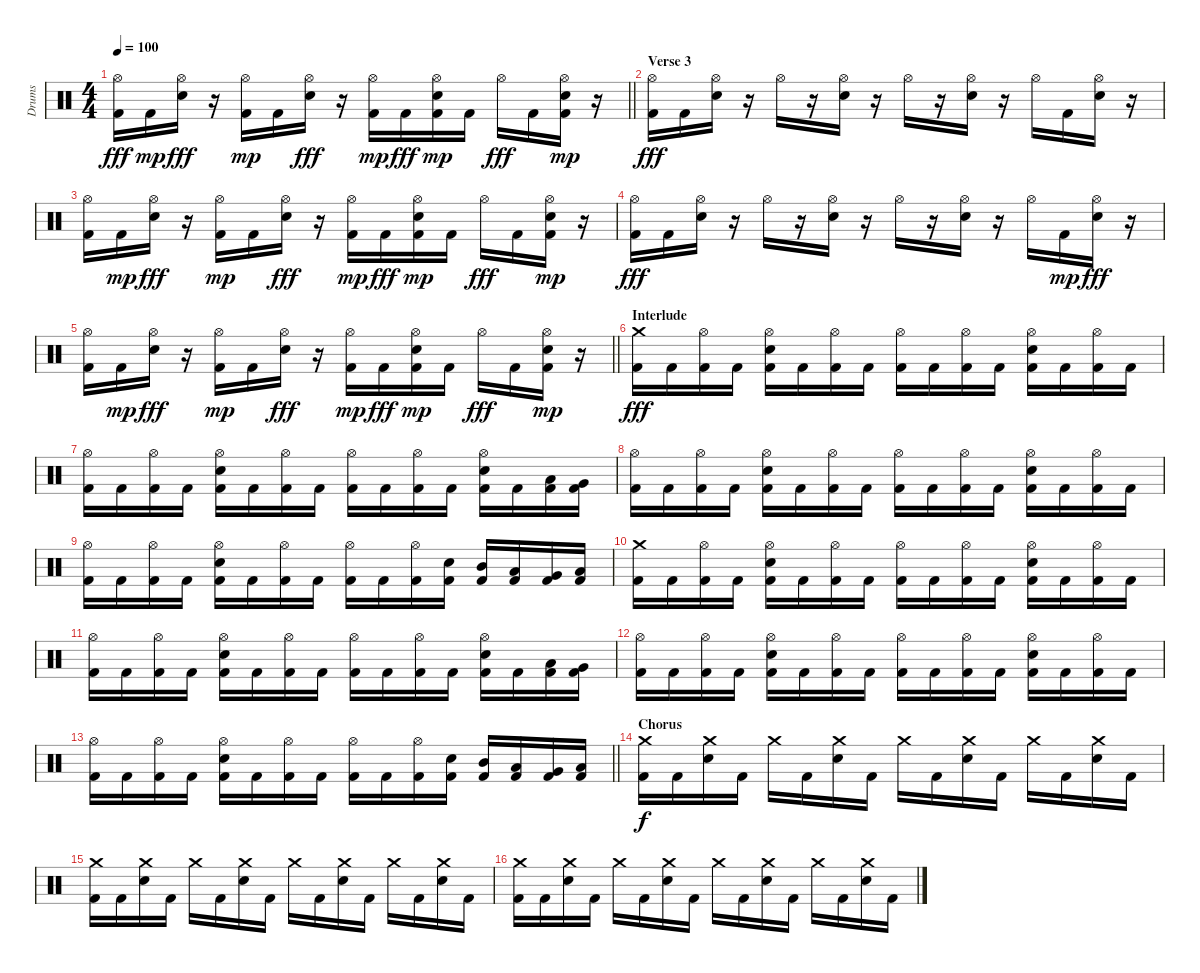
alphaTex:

\track ("Drums" "Drums") {instrument percussion}
\staff {score}
\articulation defaults
\ts (4 4)
\tempo 100
\clef neutral
\barLineRight lightlight
\ks c
("Hi-Hat (open)" "Kick (hit) 2").16{dy fff} "Kick (hit) 2".16{dy mp} ("Hi-Hat (open)" "Electric Snare (hit)").16{dy fff} r.16 ("Hi-Hat (open)" "Kick (hit) 2").16{dy mp} "Kick (hit) 2".16 ("Hi-Hat (open)" "Electric Snare (hit)").16{dy fff} r.16 ("Hi-Hat (open)" "Kick (hit) 2").16{dy mp} "Kick (hit) 2".16{dy fff} ("Hi-Hat (open)" "Electric Snare (hit)" "Kick (hit) 2").16{dy mp} "Kick (hit) 2".16 "Hi-Hat (open)".16{dy fff} "Kick (hit) 2".16 ("Hi-Hat (open)" "Electric Snare (hit)" "Kick (hit) 2").16{dy mp} r.16 |
\section ("" "Verse 3")
("Hi-Hat (open)" "Kick (hit) 2").16{dy fff} "Kick (hit) 2".16 ("Hi-Hat (open)" "Electric Snare (hit)").16 r.16 "Hi-Hat (open)".16 r.16 ("Hi-Hat (open)" "Electric Snare (hit)").16 r.16 "Hi-Hat (open)".16 r.16 ("Hi-Hat (open)" "Electric Snare (hit)").16 r.16 "Hi-Hat (open)".16 "Kick (hit) 2".16 ("Hi-Hat (open)" "Electric Snare (hit)").16 r.16 |
("Hi-Hat (open)" "Kick (hit) 2").16 "Kick (hit) 2".16{dy mp} ("Hi-Hat (open)" "Electric Snare (hit)").16{dy fff} r.16 ("Hi-Hat (open)" "Kick (hit) 2").16{dy mp} "Kick (hit) 2".16 ("Hi-Hat (open)" "Electric Snare (hit)").16{dy fff} r.16 ("Hi-Hat (open)" "Kick (hit) 2").16{dy mp} "Kick (hit) 2".16{dy fff} ("Hi-Hat (open)" "Electric Snare (hit)" "Kick (hit) 2").16{dy mp} "Kick (hit) 2".16 "Hi-Hat (open)".16{dy fff} "Kick (hit) 2".16 ("Hi-Hat (open)" "Electric Snare (hit)" "Kick (hit) 2").16{dy mp} r.16 |
("Hi-Hat (open)" "Kick (hit) 2").16{dy fff} "Kick (hit) 2".16 ("Hi-Hat (open)" "Electric Snare (hit)").16 r.16 "Hi-Hat (open)".16 r.16 ("Hi-Hat (open)" "Electric Snare (hit)").16 r.16 "Hi-Hat (open)".16 r.16 ("Hi-Hat (open)" "Electric Snare (hit)").16 r.16 "Hi-Hat (open)".16 "Kick (hit) 2".16{dy mp} ("Hi-Hat (open)" "Electric Snare (hit)").16{dy fff} r.16 |
\barLineRight lightlight
("Hi-Hat (open)" "Kick (hit) 2").16 "Kick (hit) 2".16{dy mp} ("Hi-Hat (open)" "Electric Snare (hit)").16{dy fff} r.16 ("Hi-Hat (open)" "Kick (hit) 2").16{dy mp} "Kick (hit) 2".16 ("Hi-Hat (open)" "Electric Snare (hit)").16{dy fff} r.16 ("Hi-Hat (open)" "Kick (hit) 2").16{dy mp} "Kick (hit) 2".16{dy fff} ("Hi-Hat (open)" "Electric Snare (hit)" "Kick (hit) 2").16{dy mp} "Kick (hit) 2".16 "Hi-Hat (open)".16{dy fff} "Kick (hit) 2".16 ("Hi-Hat (open)" "Electric Snare (hit)" "Kick (hit) 2").16{dy mp} r.16 |
\section ("" "Interlude")
("Crash medium (hit)" "Kick (hit) 2").16{dy fff} "Kick (hit) 2".16 ("Hi-Hat (open)" "Kick (hit) 2").16 "Kick (hit) 2".16 ("Hi-Hat (open)" "Electric Snare (hit)" "Kick (hit) 2").16 "Kick (hit) 2".16 ("Hi-Hat (open)" "Kick (hit) 2").16 "Kick (hit) 2".16 ("Hi-Hat (open)" "Kick (hit) 2").16 "Kick (hit) 2".16 ("Hi-Hat (open)" "Kick (hit) 2").16 "Kick (hit) 2".16 ("Hi-Hat (open)" "Electric Snare (hit)" "Kick (hit) 2").16 "Kick (hit) 2".16 ("Hi-Hat (open)" "Kick (hit) 2").16 "Kick (hit) 2".16 |
("Hi-Hat (open)" "Kick (hit) 2").16 "Kick (hit) 2".16 ("Hi-Hat (open)" "Kick (hit) 2").16 "Kick (hit) 2".16 ("Hi-Hat (open)" "Electric Snare (hit)" "Kick (hit) 2").16 "Kick (hit) 2".16 ("Hi-Hat (open)" "Kick (hit) 2").16 "Kick (hit) 2".16 ("Hi-Hat (open)" "Kick (hit) 2").16 "Kick (hit) 2".16 ("Hi-Hat (open)" "Kick (hit) 2").16 "Kick (hit) 2".16 ("Hi-Hat (open)" "Electric Snare (hit)" "Kick (hit) 2").16 "Kick (hit) 2".16 ("Low Tom (hit)" "Kick (hit) 2").16 ("Very Low Tom (hit)" "Kick (hit) 2").16 |
("Hi-Hat (open)" "Kick (hit) 2").16 "Kick (hit) 2".16 ("Hi-Hat (open)" "Kick (hit) 2").16 "Kick (hit) 2".16 ("Hi-Hat (open)" "Electric Snare (hit)" "Kick (hit) 2").16 "Kick (hit) 2".16 ("Hi-Hat (open)" "Kick (hit) 2").16 "Kick (hit) 2".16 ("Hi-Hat (open)" "Kick (hit) 2").16 "Kick (hit) 2".16 ("Hi-Hat (open)" "Kick (hit) 2").16 "Kick (hit) 2".16 ("Hi-Hat (open)" "Electric Snare (hit)" "Kick (hit) 2").16 "Kick (hit) 2".16 ("Hi-Hat (open)" "Kick (hit) 2").16 "Kick (hit) 2".16 |
("Hi-Hat (open)" "Kick (hit) 2").16 "Kick (hit) 2".16 ("Hi-Hat (open)" "Kick (hit) 2").16 "Kick (hit) 2".16 ("Hi-Hat (open)" "Electric Snare (hit)" "Kick (hit) 2").16 "Kick (hit) 2".16 ("Hi-Hat (open)" "Kick (hit) 2").16 "Kick (hit) 2".16 ("Hi-Hat (open)" "Kick (hit) 2").16 "Kick (hit) 2".16 ("Hi-Hat (open)" "Kick (hit) 2").16 ("Electric Snare (hit)" "Kick (hit) 2").16 ("Mid Tom (hit)" "Kick (hit) 2").16 ("Low Tom (hit)" "Kick (hit) 2").16 ("Very Low Tom (hit)" "Kick (hit) 2").16 ("Low Floor Tom (hit)" "Kick (hit) 2").16 |
("Crash medium (hit)" "Kick (hit) 2").16 "Kick (hit) 2".16 ("Hi-Hat (open)" "Kick (hit) 2").16 "Kick (hit) 2".16 ("Hi-Hat (open)" "Electric Snare (hit)" "Kick (hit) 2").16 "Kick (hit) 2".16 ("Hi-Hat (open)" "Kick (hit) 2").16 "Kick (hit) 2".16 ("Hi-Hat (open)" "Kick (hit) 2").16 "Kick (hit) 2".16 ("Hi-Hat (open)" "Kick (hit) 2").16 "Kick (hit) 2".16 ("Hi-Hat (open)" "Electric Snare (hit)" "Kick (hit) 2").16 "Kick (hit) 2".16 ("Hi-Hat (open)" "Kick (hit) 2").16 "Kick (hit) 2".16 |
("Hi-Hat (open)" "Kick (hit) 2").16 "Kick (hit) 2".16 ("Hi-Hat (open)" "Kick (hit) 2").16 "Kick (hit) 2".16 ("Hi-Hat (open)" "Electric Snare (hit)" "Kick (hit) 2").16 "Kick (hit) 2".16 ("Hi-Hat (open)" "Kick (hit) 2").16 "Kick (hit) 2".16 ("Hi-Hat (open)" "Kick (hit) 2").16 "Kick (hit) 2".16 ("Hi-Hat (open)" "Kick (hit) 2").16 "Kick (hit) 2".16 ("Hi-Hat (open)" "Electric Snare (hit)" "Kick (hit) 2").16 "Kick (hit) 2".16 ("Low Tom (hit)" "Kick (hit) 2").16 ("Very Low Tom (hit)" "Kick (hit) 2").16 |
("Hi-Hat (open)" "Kick (hit) 2").16 "Kick (hit) 2".16 ("Hi-Hat (open)" "Kick (hit) 2").16 "Kick (hit) 2".16 ("Hi-Hat (open)" "Electric Snare (hit)" "Kick (hit) 2").16 "Kick (hit) 2".16 ("Hi-Hat (open)" "Kick (hit) 2").16 "Kick (hit) 2".16 ("Hi-Hat (open)" "Kick (hit) 2").16 "Kick (hit) 2".16 ("Hi-Hat (open)" "Kick (hit) 2").16 "Kick (hit) 2".16 ("Hi-Hat (open)" "Electric Snare (hit)" "Kick (hit) 2").16 "Kick (hit) 2".16 ("Hi-Hat (open)" "Kick (hit) 2").16 "Kick (hit) 2".16 |
\barLineRight lightlight
("Hi-Hat (open)" "Kick (hit) 2").16 "Kick (hit) 2".16 ("Hi-Hat (open)" "Kick (hit) 2").16 "Kick (hit) 2".16 ("Hi-Hat (open)" "Electric Snare (hit)" "Kick (hit) 2").16 "Kick (hit) 2".16 ("Hi-Hat (open)" "Kick (hit) 2").16 "Kick (hit) 2".16 ("Hi-Hat (open)" "Kick (hit) 2").16 "Kick (hit) 2".16 ("Hi-Hat (open)" "Kick (hit) 2").16 ("Electric Snare (hit)" "Kick (hit) 2").16 ("Mid Tom (hit)" "Kick (hit) 2").16 ("Low Tom (hit)" "Kick (hit) 2").16 ("Very Low Tom (hit)" "Kick (hit) 2").16 ("Low Floor Tom (hit)" "Kick (hit) 2").16 |
\section ("" "Chorus")
("Crash medium (hit)" "Kick (hit) 2").16{dy f} "Kick (hit) 2".16 ("Crash medium (hit)" "Electric Snare (hit)").16 "Kick (hit) 2".16 "Crash medium (hit)".16 "Kick (hit) 2".16 ("Crash medium (hit)" "Electric Snare (hit)").16 "Kick (hit) 2".16 "Crash medium (hit)".16 "Kick (hit) 2".16 ("Crash medium (hit)" "Electric Snare (hit)").16 "Kick (hit) 2".16 "Crash medium (hit)".16 "Kick (hit) 2".16 ("Crash medium (hit)" "Electric Snare (hit)").16 "Kick (hit) 2".16 |
("Crash medium (hit)" "Kick (hit) 2").16 "Kick (hit) 2".16 ("Crash medium (hit)" "Electric Snare (hit)").16 "Kick (hit) 2".16 "Crash medium (hit)".16 "Kick (hit) 2".16 ("Crash medium (hit)" "Electric Snare (hit)").16 "Kick (hit) 2".16 "Crash medium (hit)".16 "Kick (hit) 2".16 ("Crash medium (hit)" "Electric Snare (hit)").16 "Kick (hit) 2".16 "Crash medium (hit)".16 "Kick (hit) 2".16 ("Crash medium (hit)" "Electric Snare (hit)").16 "Kick (hit) 2".16 |
("Crash medium (hit)" "Kick (hit) 2").16 "Kick (hit) 2".16 ("Crash medium (hit)" "Electric Snare (hit)").16 "Kick (hit) 2".16 "Crash medium (hit)".16 "Kick (hit) 2".16 ("Crash medium (hit)" "Electric Snare (hit)").16 "Kick (hit) 2".16 "Crash medium (hit)".16 "Kick (hit) 2".16 ("Crash medium (hit)" "Electric Snare (hit)").16 "Kick (hit) 2".16 "Crash medium (hit)".16 "Kick (hit) 2".16 ("Crash medium (hit)" "Electric Snare (hit)").16 "Kick (hit) 2".16
